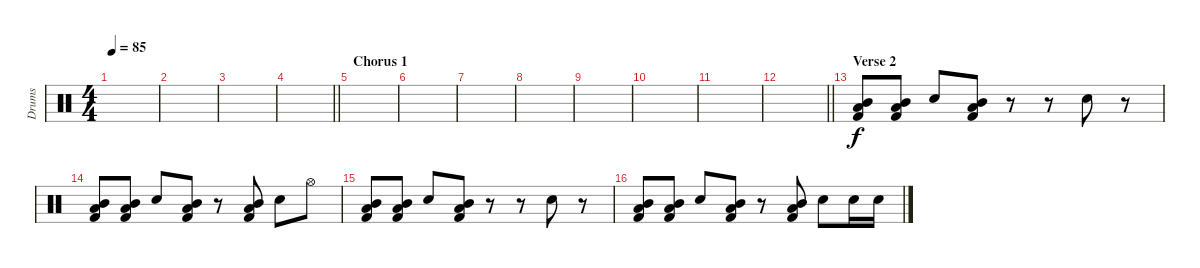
\track ("Drums" "Drums") {instrument percussion}
\staff {score}
\articulation defaults
\ts (4 4)
\tempo 85
\clef neutral
\ks c
|
|
|
\barLineRight lightlight
|
\section ("" "Chorus 1")
|
|
|
|
|
|
|
\barLineRight lightlight
|
\section ("" "Verse 2")
("Mid Tom (hit)" "Low Tom (hit)" "Kick (hit) 2").8 ("Mid Tom (hit)" "Low Tom (hit)" "Kick (hit) 2").8 "Electric Snare (hit)".8 ("Mid Tom (hit)" "Low Tom (hit)" "Kick (hit) 2").8 r.8 r.8 "Electric Snare (hit)".8 r.8 |
("Mid Tom (hit)" "Low Tom (hit)" "Kick (hit) 2").8 ("Mid Tom (hit)" "Low Tom (hit)" "Kick (hit) 2").8 "Electric Snare (hit)".8 ("Mid Tom (hit)" "Low Tom (hit)" "Kick (hit) 2").8 r.8 ("Mid Tom (hit)" "Low Tom (hit)" "Kick (hit) 2").8 "Electric Snare (hit)".8 "Hi-Hat (open)".8 |
("Mid Tom (hit)" "Low Tom (hit)" "Kick (hit) 2").8 ("Mid Tom (hit)" "Low Tom (hit)" "Kick (hit) 2").8 "Electric Snare (hit)".8 ("Mid Tom (hit)" "Low Tom (hit)" "Kick (hit) 2").8 r.8 r.8 "Electric Snare (hit)".8 r.8 |
("Mid Tom (hit)" "Low Tom (hit)" "Kick (hit) 2").8 ("Mid Tom (hit)" "Low Tom (hit)" "Kick (hit) 2").8 "Electric Snare (hit)".8 ("Mid Tom (hit)" "Low Tom (hit)" "Kick (hit) 2").8 r.8 ("Mid Tom (hit)" "Low Tom (hit)" "Kick (hit) 2").8 "Electric Snare (hit)".8 "Electric Snare (hit)".16 "Electric Snare (hit)".16
